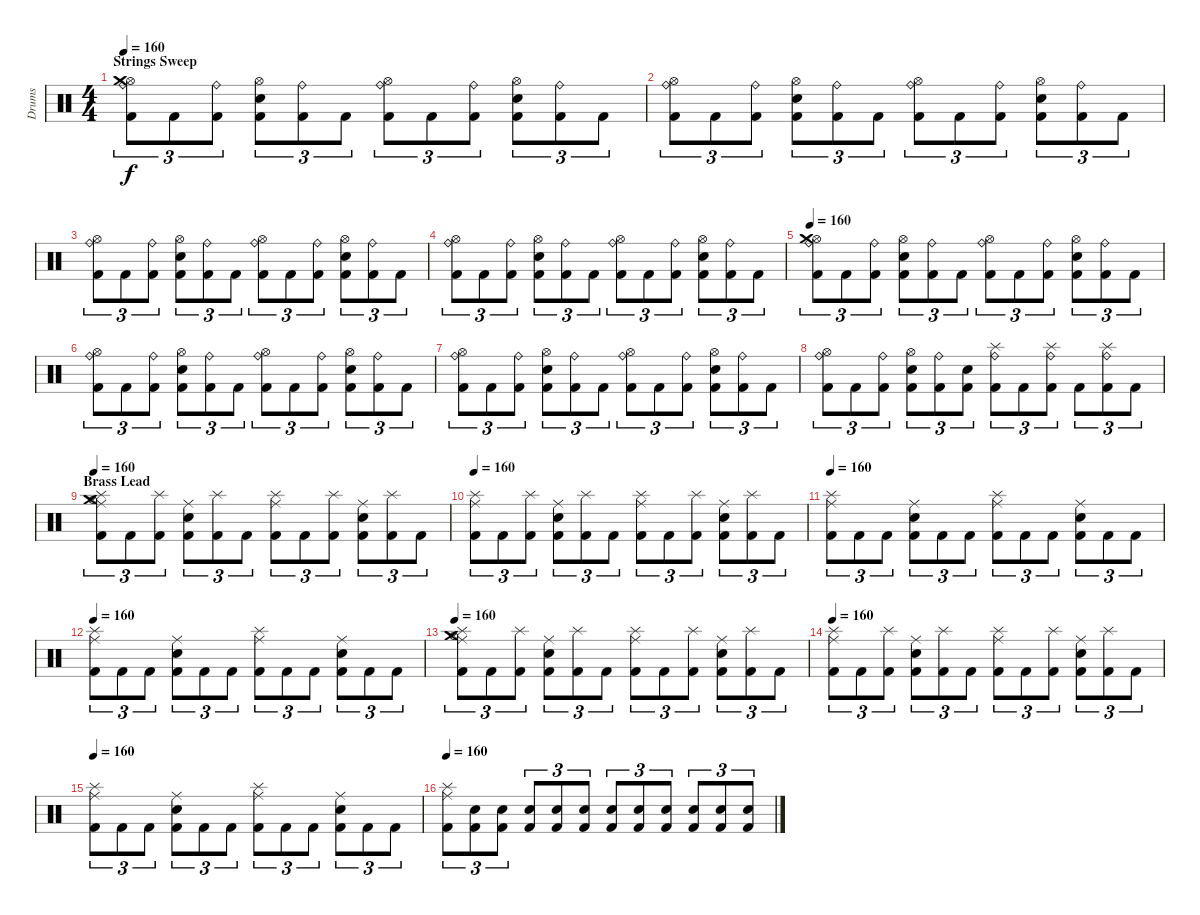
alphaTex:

\track ("Drums" "Drums") {instrument percussion}
\staff {score}
\articulation defaults
\ts (4 4)
\section ("" "Strings Sweep")
\tempo 160
\clef neutral
\ks c
("Ride (bell)" "Hi-Hat (open)" "Crash medium (hit)" "Kick (hit) 2").8{tu (3 2) dy f} "Kick (hit) 2".8{tu (3 2)} ("Ride (bell)" "Kick (hit) 2").8{tu (3 2)} ("Hi-Hat (open)" "Snare (hit) 2" "Kick (hit) 2").8{tu (3 2)} ("Ride (bell)" "Kick (hit) 2").8{tu (3 2)} "Kick (hit) 2".8{tu (3 2)} ("Ride (bell)" "Hi-Hat (open)" "Kick (hit) 2").8{tu (3 2)} "Kick (hit) 2".8{tu (3 2)} ("Ride (bell)" "Kick (hit) 2").8{tu (3 2)} ("Hi-Hat (open)" "Snare (hit) 2" "Kick (hit) 2").8{tu (3 2)} ("Ride (bell)" "Kick (hit) 2").8{tu (3 2)} "Kick (hit) 2".8{tu (3 2)} |
("Ride (bell)" "Hi-Hat (open)" "Kick (hit) 2").8{tu (3 2)} "Kick (hit) 2".8{tu (3 2)} ("Ride (bell)" "Kick (hit) 2").8{tu (3 2)} ("Hi-Hat (open)" "Snare (hit) 2" "Kick (hit) 2").8{tu (3 2)} ("Ride (bell)" "Kick (hit) 2").8{tu (3 2)} "Kick (hit) 2".8{tu (3 2)} ("Ride (bell)" "Hi-Hat (open)" "Kick (hit) 2").8{tu (3 2)} "Kick (hit) 2".8{tu (3 2)} ("Ride (bell)" "Kick (hit) 2").8{tu (3 2)} ("Hi-Hat (open)" "Snare (hit) 2" "Kick (hit) 2").8{tu (3 2)} ("Ride (bell)" "Kick (hit) 2").8{tu (3 2)} "Kick (hit) 2".8{tu (3 2)} |
("Ride (bell)" "Hi-Hat (open)" "Kick (hit) 2").8{tu (3 2)} "Kick (hit) 2".8{tu (3 2)} ("Ride (bell)" "Kick (hit) 2").8{tu (3 2)} ("Hi-Hat (open)" "Snare (hit) 2" "Kick (hit) 2").8{tu (3 2)} ("Ride (bell)" "Kick (hit) 2").8{tu (3 2)} "Kick (hit) 2".8{tu (3 2)} ("Ride (bell)" "Hi-Hat (open)" "Kick (hit) 2").8{tu (3 2)} "Kick (hit) 2".8{tu (3 2)} ("Ride (bell)" "Kick (hit) 2").8{tu (3 2)} ("Hi-Hat (open)" "Snare (hit) 2" "Kick (hit) 2").8{tu (3 2)} ("Ride (bell)" "Kick (hit) 2").8{tu (3 2)} "Kick (hit) 2".8{tu (3 2)} |
("Ride (bell)" "Hi-Hat (open)" "Kick (hit) 2").8{tu (3 2)} "Kick (hit) 2".8{tu (3 2)} ("Ride (bell)" "Kick (hit) 2").8{tu (3 2)} ("Hi-Hat (open)" "Snare (hit) 2" "Kick (hit) 2").8{tu (3 2)} ("Ride (bell)" "Kick (hit) 2").8{tu (3 2)} "Kick (hit) 2".8{tu (3 2)} ("Ride (bell)" "Hi-Hat (open)" "Kick (hit) 2").8{tu (3 2)} "Kick (hit) 2".8{tu (3 2)} ("Ride (bell)" "Kick (hit) 2").8{tu (3 2)} ("Hi-Hat (open)" "Snare (hit) 2" "Kick (hit) 2").8{tu (3 2)} ("Ride (bell)" "Kick (hit) 2").8{tu (3 2)} "Kick (hit) 2".8{tu (3 2)} |
\tempo 160
("Ride (bell)" "Hi-Hat (open)" "Crash medium (hit)" "Kick (hit) 2").8{tu (3 2)} "Kick (hit) 2".8{tu (3 2)} ("Ride (bell)" "Kick (hit) 2").8{tu (3 2)} ("Hi-Hat (open)" "Snare (hit) 2" "Kick (hit) 2").8{tu (3 2)} ("Ride (bell)" "Kick (hit) 2").8{tu (3 2)} "Kick (hit) 2".8{tu (3 2)} ("Ride (bell)" "Hi-Hat (open)" "Kick (hit) 2").8{tu (3 2)} "Kick (hit) 2".8{tu (3 2)} ("Ride (bell)" "Kick (hit) 2").8{tu (3 2)} ("Hi-Hat (open)" "Snare (hit) 2" "Kick (hit) 2").8{tu (3 2)} ("Ride (bell)" "Kick (hit) 2").8{tu (3 2)} "Kick (hit) 2".8{tu (3 2)} |
("Ride (bell)" "Hi-Hat (open)" "Kick (hit) 2").8{tu (3 2)} "Kick (hit) 2".8{tu (3 2)} ("Ride (bell)" "Kick (hit) 2").8{tu (3 2)} ("Hi-Hat (open)" "Snare (hit) 2" "Kick (hit) 2").8{tu (3 2)} ("Ride (bell)" "Kick (hit) 2").8{tu (3 2)} "Kick (hit) 2".8{tu (3 2)} ("Ride (bell)" "Hi-Hat (open)" "Kick (hit) 2").8{tu (3 2)} "Kick (hit) 2".8{tu (3 2)} ("Ride (bell)" "Kick (hit) 2").8{tu (3 2)} ("Hi-Hat (open)" "Snare (hit) 2" "Kick (hit) 2").8{tu (3 2)} ("Ride (bell)" "Kick (hit) 2").8{tu (3 2)} "Kick (hit) 2".8{tu (3 2)} |
("Ride (bell)" "Hi-Hat (open)" "Kick (hit) 2").8{tu (3 2)} "Kick (hit) 2".8{tu (3 2)} ("Ride (bell)" "Kick (hit) 2").8{tu (3 2)} ("Hi-Hat (open)" "Snare (hit) 2" "Kick (hit) 2").8{tu (3 2)} ("Ride (bell)" "Kick (hit) 2").8{tu (3 2)} "Kick (hit) 2".8{tu (3 2)} ("Ride (bell)" "Hi-Hat (open)" "Kick (hit) 2").8{tu (3 2)} "Kick (hit) 2".8{tu (3 2)} ("Ride (bell)" "Kick (hit) 2").8{tu (3 2)} ("Hi-Hat (open)" "Snare (hit) 2" "Kick (hit) 2").8{tu (3 2)} ("Ride (bell)" "Kick (hit) 2").8{tu (3 2)} "Kick (hit) 2".8{tu (3 2)} |
("Ride (bell)" "Hi-Hat (open)" "Kick (hit) 2").8{tu (3 2)} "Kick (hit) 2".8{tu (3 2)} ("Ride (bell)" "Kick (hit) 2").8{tu (3 2)} ("Hi-Hat (open)" "Snare (hit) 2" "Kick (hit) 2").8{tu (3 2)} ("Ride (bell)" "Kick (hit) 2").8{tu (3 2)} ("Snare (hit) 2" "Kick (hit) 2").8{tu (3 2)} ("Ride (bell)" "Splash (hit)" "Kick (hit) 2").8{tu (3 2)} "Kick (hit) 2".8{tu (3 2)} ("Ride (bell)" "Splash (hit)" "Kick (hit) 2").8{tu (3 2)} "Kick (hit) 2".8{tu (3 2)} ("Ride (bell)" "Splash (hit)" "Kick (hit) 2").8{tu (3 2)} "Kick (hit) 2".8{tu (3 2)} |
\section ("" "Brass Lead")
\tempo 160
("Splash (hit)" "Ride (middle)" "Crash medium (hit)" "Hi-Hat (open)" "Kick (hit) 2").8{tu (3 2)} "Kick (hit) 2".8{tu (3 2)} ("Splash (hit)" "Kick (hit) 2").8{tu (3 2)} ("Ride (middle)" "Snare (hit) 2" "Kick (hit) 2").8{tu (3 2)} ("Splash (hit)" "Kick (hit) 2").8{tu (3 2)} "Kick (hit) 2".8{tu (3 2)} ("Splash (hit)" "Ride (middle)" "Kick (hit) 2").8{tu (3 2)} "Kick (hit) 2".8{tu (3 2)} ("Splash (hit)" "Kick (hit) 2").8{tu (3 2)} ("Ride (middle)" "Snare (hit) 2" "Kick (hit) 2").8{tu (3 2)} ("Splash (hit)" "Kick (hit) 2").8{tu (3 2)} "Kick (hit) 2".8{tu (3 2)} |
\tempo 160
("Splash (hit)" "Ride (middle)" "Kick (hit) 2").8{tu (3 2)} "Kick (hit) 2".8{tu (3 2)} ("Splash (hit)" "Kick (hit) 2").8{tu (3 2)} ("Ride (middle)" "Snare (hit) 2" "Kick (hit) 2").8{tu (3 2)} ("Splash (hit)" "Kick (hit) 2").8{tu (3 2)} "Kick (hit) 2".8{tu (3 2)} ("Splash (hit)" "Ride (middle)" "Kick (hit) 2").8{tu (3 2)} "Kick (hit) 2".8{tu (3 2)} ("Splash (hit)" "Kick (hit) 2").8{tu (3 2)} ("Ride (middle)" "Snare (hit) 2" "Kick (hit) 2").8{tu (3 2)} ("Splash (hit)" "Kick (hit) 2").8{tu (3 2)} "Kick (hit) 2".8{tu (3 2)} |
\tempo 160
("Splash (hit)" "Ride (middle)" "Kick (hit) 2").8{tu (3 2)} "Kick (hit) 2".8{tu (3 2)} "Kick (hit) 2".8{tu (3 2)} ("Ride (middle)" "Snare (hit) 2" "Kick (hit) 2").8{tu (3 2)} "Kick (hit) 2".8{tu (3 2)} "Kick (hit) 2".8{tu (3 2)} ("Splash (hit)" "Ride (middle)" "Kick (hit) 2").8{tu (3 2)} "Kick (hit) 2".8{tu (3 2)} "Kick (hit) 2".8{tu (3 2)} ("Ride (middle)" "Snare (hit) 2" "Kick (hit) 2").8{tu (3 2)} "Kick (hit) 2".8{tu (3 2)} "Kick (hit) 2".8{tu (3 2)} |
\tempo 160
("Splash (hit)" "Ride (middle)" "Kick (hit) 2").8{tu (3 2)} "Kick (hit) 2".8{tu (3 2)} "Kick (hit) 2".8{tu (3 2)} ("Ride (middle)" "Snare (hit) 2" "Kick (hit) 2").8{tu (3 2)} "Kick (hit) 2".8{tu (3 2)} "Kick (hit) 2".8{tu (3 2)} ("Splash (hit)" "Ride (middle)" "Kick (hit) 2").8{tu (3 2)} "Kick (hit) 2".8{tu (3 2)} "Kick (hit) 2".8{tu (3 2)} ("Ride (middle)" "Snare (hit) 2" "Kick (hit) 2").8{tu (3 2)} "Kick (hit) 2".8{tu (3 2)} "Kick (hit) 2".8{tu (3 2)} |
\tempo 160
("Splash (hit)" "Ride (middle)" "Crash medium (hit)" "Hi-Hat (open)" "Kick (hit) 2").8{tu (3 2)} "Kick (hit) 2".8{tu (3 2)} ("Splash (hit)" "Kick (hit) 2").8{tu (3 2)} ("Ride (middle)" "Snare (hit) 2" "Kick (hit) 2").8{tu (3 2)} ("Splash (hit)" "Kick (hit) 2").8{tu (3 2)} "Kick (hit) 2".8{tu (3 2)} ("Splash (hit)" "Ride (middle)" "Kick (hit) 2").8{tu (3 2)} "Kick (hit) 2".8{tu (3 2)} ("Splash (hit)" "Kick (hit) 2").8{tu (3 2)} ("Ride (middle)" "Snare (hit) 2" "Kick (hit) 2").8{tu (3 2)} ("Splash (hit)" "Kick (hit) 2").8{tu (3 2)} "Kick (hit) 2".8{tu (3 2)} |
\tempo 160
("Splash (hit)" "Ride (middle)" "Kick (hit) 2").8{tu (3 2)} "Kick (hit) 2".8{tu (3 2)} ("Splash (hit)" "Kick (hit) 2").8{tu (3 2)} ("Ride (middle)" "Snare (hit) 2" "Kick (hit) 2").8{tu (3 2)} ("Splash (hit)" "Kick (hit) 2").8{tu (3 2)} "Kick (hit) 2".8{tu (3 2)} ("Splash (hit)" "Ride (middle)" "Kick (hit) 2").8{tu (3 2)} "Kick (hit) 2".8{tu (3 2)} ("Splash (hit)" "Kick (hit) 2").8{tu (3 2)} ("Ride (middle)" "Snare (hit) 2" "Kick (hit) 2").8{tu (3 2)} ("Splash (hit)" "Kick (hit) 2").8{tu (3 2)} "Kick (hit) 2".8{tu (3 2)} |
\tempo 160
("Splash (hit)" "Ride (middle)" "Kick (hit) 2").8{tu (3 2)} "Kick (hit) 2".8{tu (3 2)} "Kick (hit) 2".8{tu (3 2)} ("Ride (middle)" "Snare (hit) 2" "Kick (hit) 2").8{tu (3 2)} "Kick (hit) 2".8{tu (3 2)} "Kick (hit) 2".8{tu (3 2)} ("Splash (hit)" "Ride (middle)" "Kick (hit) 2").8{tu (3 2)} "Kick (hit) 2".8{tu (3 2)} "Kick (hit) 2".8{tu (3 2)} ("Ride (middle)" "Snare (hit) 2" "Kick (hit) 2").8{tu (3 2)} "Kick (hit) 2".8{tu (3 2)} "Kick (hit) 2".8{tu (3 2)} |
\tempo 160
("Splash (hit)" "Ride (middle)" "Kick (hit) 2").8{tu (3 2)} ("Snare (hit) 2" "Kick (hit) 2").8{tu (3 2)} ("Snare (hit) 2" "Kick (hit) 2").8{tu (3 2)} ("Snare (hit) 2" "Kick (hit) 2").8{tu (3 2)} ("Snare (hit) 2" "Kick (hit) 2").8{tu (3 2)} ("Snare (hit) 2" "Kick (hit) 2").8{tu (3 2)} ("Snare (hit) 2" "Kick (hit) 2").8{tu (3 2)} ("Snare (hit) 2" "Kick (hit) 2").8{tu (3 2)} ("Snare (hit) 2" "Kick (hit) 2").8{tu (3 2)} ("Snare (hit) 2" "Kick (hit) 2").8{tu (3 2)} ("Snare (hit) 2" "Kick (hit) 2").8{tu (3 2)} ("Snare (hit) 2" "Kick (hit) 2").8{tu (3 2)}
